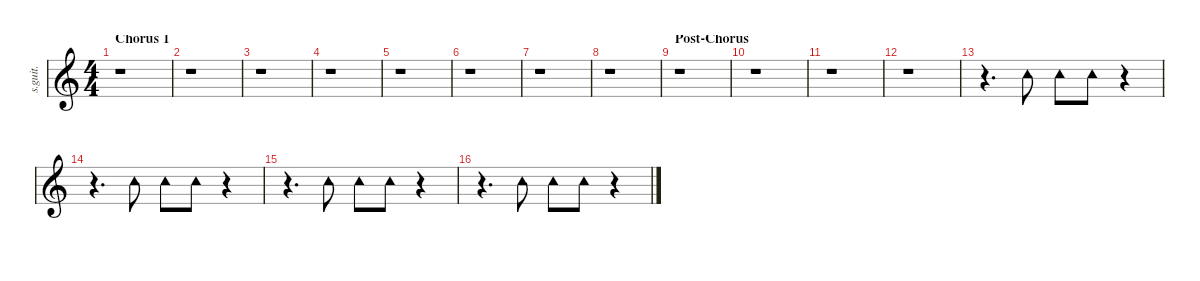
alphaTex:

\defaultSystemsLayout 4
\hideDynamics
\bracketExtendMode nobrackets
\track ("Tambourine" "s.guit.") {instrument percussion}
\staff {score}
\articulation defaults
\ts (4 4)
\section ("" "Chorus 1")
\tempo (82 hide)
\clef g2
\ks c
r.1{dy ff} |
r.1 |
r.1 |
r.1 |
r.1 |
r.1 |
r.1 |
r.1 |
\section ("" "Post-Chorus")
r.1 |
r.1 |
r.1 |
r.1 |
r.4{d} "Tambourine (hit)".8{lyrics (0 "") lyrics (1 "") lyrics (2 "") lyrics (3 "") lyrics (4 "")} "Tambourine (hit)".8{lyrics (0 "") lyrics (1 "") lyrics (2 "") lyrics (3 "") lyrics (4 "")} "Tambourine (hit)".8{lyrics (0 "") lyrics (1 "") lyrics (2 "") lyrics (3 "") lyrics (4 "")} r.4 |
r.4{d} "Tambourine (hit)".8{lyrics (0 "") lyrics (1 "") lyrics (2 "") lyrics (3 "") lyrics (4 "")} "Tambourine (hit)".8{lyrics (0 "") lyrics (1 "") lyrics (2 "") lyrics (3 "") lyrics (4 "")} "Tambourine (hit)".8{lyrics (0 "") lyrics (1 "") lyrics (2 "") lyrics (3 "") lyrics (4 "")} r.4 |
r.4{d} "Tambourine (hit)".8{lyrics (0 "") lyrics (1 "") lyrics (2 "") lyrics (3 "") lyrics (4 "")} "Tambourine (hit)".8{lyrics (0 "") lyrics (1 "") lyrics (2 "") lyrics (3 "") lyrics (4 "")} "Tambourine (hit)".8{lyrics (0 "") lyrics (1 "") lyrics (2 "") lyrics (3 "") lyrics (4 "")} r.4 |
r.4{d} "Tambourine (hit)".8{lyrics (0 "") lyrics (1 "") lyrics (2 "") lyrics (3 "") lyrics (4 "")} "Tambourine (hit)".8{lyrics (0 "") lyrics (1 "") lyrics (2 "") lyrics (3 "") lyrics (4 "")} "Tambourine (hit)".8{lyrics (0 "") lyrics (1 "") lyrics (2 "") lyrics (3 "") lyrics (4 "")} r.4
